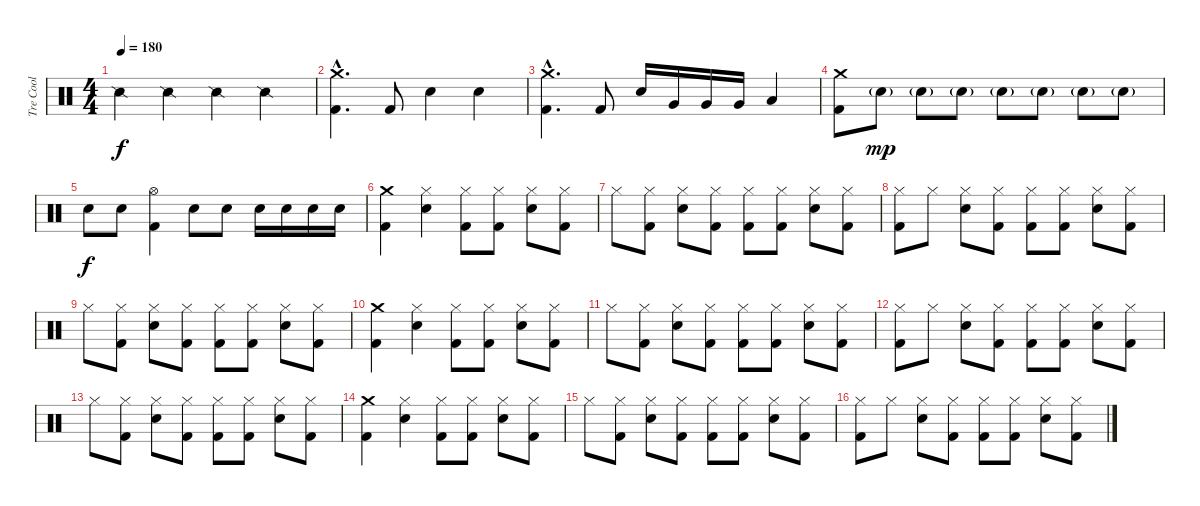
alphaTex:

\track ("Tre Cool" "Tre Cool") {instrument percussion}
\staff {score}
\articulation defaults
\ts (4 4)
\tempo 180
\clef neutral
\ks c "Snare (side stick) 2".4{dy f} "Snare (side stick) 2".4 "Snare (side stick) 2".4 "Snare (side stick) 2".4
|
("Crash medium (hit)"{hac} "Kick (hit) 2"{hac}).4{d} "Kick (hit) 2".8 "Snare (hit) 2".4 "Snare (hit) 2".4 |
("Crash medium (hit)"{hac} "Kick (hit) 2"{hac}).4{d} "Kick (hit) 2".8 "Snare (hit) 2".16 "Very Low Tom (hit)".16 "Very Low Tom (hit)".16 "Very Low Tom (hit)".16 "Low Tom (hit)".4 |
("Crash medium (hit)" "Kick (hit) 2").8 "Snare (hit) 2"{g}.8{dy mp} "Snare (hit) 2"{g}.8 "Snare (hit) 2"{g}.8 "Snare (hit) 2"{g}.8 "Snare (hit) 2"{g}.8 "Snare (hit) 2"{g}.8 "Snare (hit) 2"{g}.8 |
"Snare (hit) 2".8{dy f} "Snare (hit) 2".8 ("Hi-Hat (open)" "Kick (hit) 2").4 "Snare (hit) 2".8 "Snare (hit) 2".8 "Snare (hit) 2".16 "Snare (hit) 2".16 "Snare (hit) 2".16 "Snare (hit) 2".16 |
("Crash medium (hit)" "Kick (hit) 2").4 ("Hi-Hat (closed)" "Snare (hit) 2").4 ("Hi-Hat (closed)" "Kick (hit) 2").8 ("Hi-Hat (closed)" "Kick (hit) 2").8 ("Hi-Hat (closed)" "Snare (hit) 2").8 ("Hi-Hat (closed)" "Kick (hit) 2").8 |
"Hi-Hat (closed)".8 ("Hi-Hat (closed)" "Kick (hit) 2").8 ("Hi-Hat (closed)" "Snare (hit) 2").8 ("Hi-Hat (closed)" "Kick (hit) 2").8 ("Hi-Hat (closed)" "Kick (hit) 2").8 ("Hi-Hat (closed)" "Kick (hit) 2").8 ("Hi-Hat (closed)" "Snare (hit) 2").8 ("Hi-Hat (closed)" "Kick (hit) 2").8 |
("Hi-Hat (closed)" "Kick (hit) 2").8 "Hi-Hat (closed)".8 ("Hi-Hat (closed)" "Snare (hit) 2").8 ("Hi-Hat (closed)" "Kick (hit) 2").8 ("Hi-Hat (closed)" "Kick (hit) 2").8 ("Hi-Hat (closed)" "Kick (hit) 2").8 ("Hi-Hat (closed)" "Snare (hit) 2").8 ("Hi-Hat (closed)" "Kick (hit) 2").8 |
"Hi-Hat (closed)".8 ("Hi-Hat (closed)" "Kick (hit) 2").8 ("Hi-Hat (closed)" "Snare (hit) 2").8 ("Hi-Hat (closed)" "Kick (hit) 2").8 ("Hi-Hat (closed)" "Kick (hit) 2").8 ("Hi-Hat (closed)" "Kick (hit) 2").8 ("Hi-Hat (closed)" "Snare (hit) 2").8 ("Hi-Hat (closed)" "Kick (hit) 2").8 |
("Crash medium (hit)" "Kick (hit) 2").4 ("Hi-Hat (closed)" "Snare (hit) 2").4 ("Hi-Hat (closed)" "Kick (hit) 2").8 ("Hi-Hat (closed)" "Kick (hit) 2").8 ("Hi-Hat (closed)" "Snare (hit) 2").8 ("Hi-Hat (closed)" "Kick (hit) 2").8 |
"Hi-Hat (closed)".8 ("Hi-Hat (closed)" "Kick (hit) 2").8 ("Hi-Hat (closed)" "Snare (hit) 2").8 ("Hi-Hat (closed)" "Kick (hit) 2").8 ("Hi-Hat (closed)" "Kick (hit) 2").8 ("Hi-Hat (closed)" "Kick (hit) 2").8 ("Hi-Hat (closed)" "Snare (hit) 2").8 ("Hi-Hat (closed)" "Kick (hit) 2").8 |
("Hi-Hat (closed)" "Kick (hit) 2").8 "Hi-Hat (closed)".8 ("Hi-Hat (closed)" "Snare (hit) 2").8 ("Hi-Hat (closed)" "Kick (hit) 2").8 ("Hi-Hat (closed)" "Kick (hit) 2").8 ("Hi-Hat (closed)" "Kick (hit) 2").8 ("Hi-Hat (closed)" "Snare (hit) 2").8 ("Hi-Hat (closed)" "Kick (hit) 2").8 |
"Hi-Hat (closed)".8 ("Hi-Hat (closed)" "Kick (hit) 2").8 ("Hi-Hat (closed)" "Snare (hit) 2").8 ("Hi-Hat (closed)" "Kick (hit) 2").8 ("Hi-Hat (closed)" "Kick (hit) 2").8 ("Hi-Hat (closed)" "Kick (hit) 2").8 ("Hi-Hat (closed)" "Snare (hit) 2").8 ("Hi-Hat (closed)" "Kick (hit) 2").8 |
("Crash medium (hit)" "Kick (hit) 2").4 ("Hi-Hat (closed)" "Snare (hit) 2").4 ("Hi-Hat (closed)" "Kick (hit) 2").8 ("Hi-Hat (closed)" "Kick (hit) 2").8 ("Hi-Hat (closed)" "Snare (hit) 2").8 ("Hi-Hat (closed)" "Kick (hit) 2").8 |
"Hi-Hat (closed)".8 ("Hi-Hat (closed)" "Kick (hit) 2").8 ("Hi-Hat (closed)" "Snare (hit) 2").8 ("Hi-Hat (closed)" "Kick (hit) 2").8 ("Hi-Hat (closed)" "Kick (hit) 2").8 ("Hi-Hat (closed)" "Kick (hit) 2").8 ("Hi-Hat (closed)" "Snare (hit) 2").8 ("Hi-Hat (closed)" "Kick (hit) 2").8 |
("Hi-Hat (closed)" "Kick (hit) 2").8 "Hi-Hat (closed)".8 ("Hi-Hat (closed)" "Snare (hit) 2").8 ("Hi-Hat (closed)" "Kick (hit) 2").8 ("Hi-Hat (closed)" "Kick (hit) 2").8 ("Hi-Hat (closed)" "Kick (hit) 2").8 ("Hi-Hat (closed)" "Snare (hit) 2").8 ("Hi-Hat (closed)" "Kick (hit) 2").8
